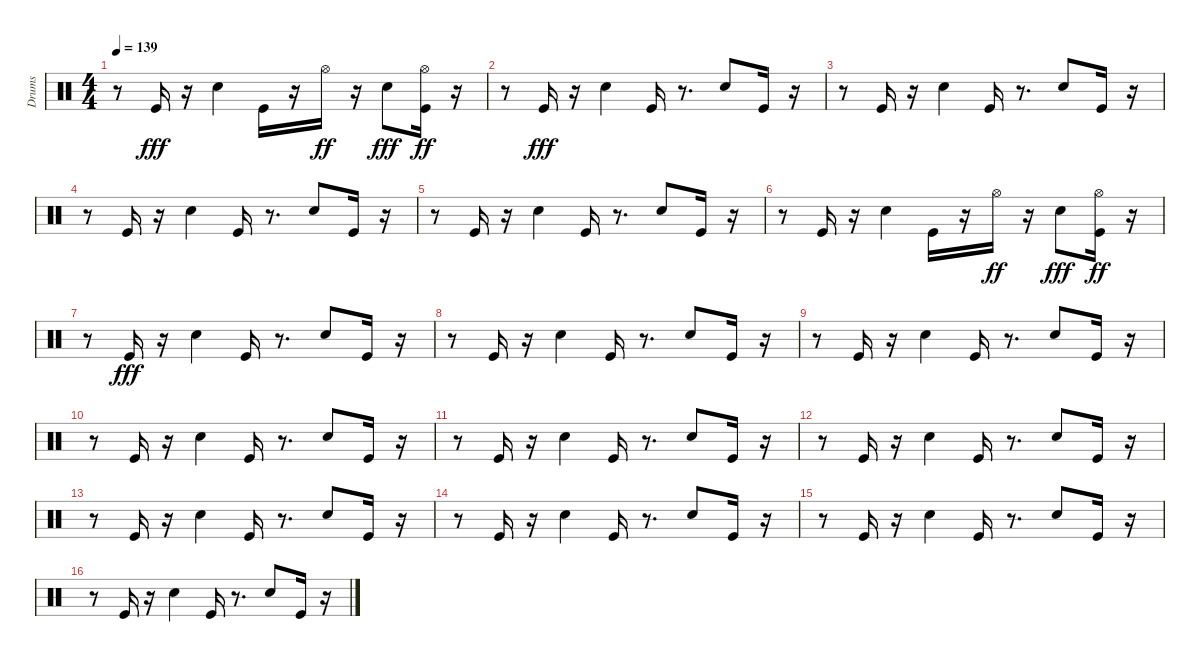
\track ("Drums" "Drums") {instrument percussion}
\staff {score}
\articulation defaults
\ts (4 4)
\tempo 139
\clef neutral
\ks c
r.8{dy fff} "Kick (hit)".16 r.16 "Snare (hit) 2".4 "Kick (hit)".16 r.16 "Hi-Hat (open)".16{dy ff} r.16 "Snare (hit) 2".8{dy fff} ("Kick (hit)" "Hi-Hat (open)").16{dy ff} r.16 |
r.8 "Kick (hit)".16{dy fff} r.16 "Snare (hit) 2".4 "Kick (hit)".16 r.8{d} "Snare (hit) 2".8 "Kick (hit)".16 r.16 |
r.8 "Kick (hit)".16 r.16 "Snare (hit) 2".4 "Kick (hit)".16 r.8{d} "Snare (hit) 2".8 "Kick (hit)".16 r.16 |
r.8 "Kick (hit)".16 r.16 "Snare (hit) 2".4 "Kick (hit)".16 r.8{d} "Snare (hit) 2".8 "Kick (hit)".16 r.16 |
r.8 "Kick (hit)".16 r.16 "Snare (hit) 2".4 "Kick (hit)".16 r.8{d} "Snare (hit) 2".8 "Kick (hit)".16 r.16 |
r.8 "Kick (hit)".16 r.16 "Snare (hit) 2".4 "Kick (hit)".16 r.16 "Hi-Hat (open)".16{dy ff} r.16 "Snare (hit) 2".8{dy fff} ("Kick (hit)" "Hi-Hat (open)").16{dy ff} r.16 |
r.8 "Kick (hit)".16{dy fff} r.16 "Snare (hit) 2".4 "Kick (hit)".16 r.8{d} "Snare (hit) 2".8 "Kick (hit)".16 r.16 |
r.8 "Kick (hit)".16 r.16 "Snare (hit) 2".4 "Kick (hit)".16 r.8{d} "Snare (hit) 2".8 "Kick (hit)".16 r.16 |
r.8 "Kick (hit)".16 r.16 "Snare (hit) 2".4 "Kick (hit)".16 r.8{d} "Snare (hit) 2".8 "Kick (hit)".16 r.16 |
r.8 "Kick (hit)".16 r.16 "Snare (hit) 2".4 "Kick (hit)".16 r.8{d} "Snare (hit) 2".8 "Kick (hit)".16 r.16 |
r.8 "Kick (hit)".16 r.16 "Snare (hit) 2".4 "Kick (hit)".16 r.8{d} "Snare (hit) 2".8 "Kick (hit)".16 r.16 |
r.8 "Kick (hit)".16 r.16 "Snare (hit) 2".4 "Kick (hit)".16 r.8{d} "Snare (hit) 2".8 "Kick (hit)".16 r.16 |
r.8 "Kick (hit)".16 r.16 "Snare (hit) 2".4 "Kick (hit)".16 r.8{d} "Snare (hit) 2".8 "Kick (hit)".16 r.16 |
r.8 "Kick (hit)".16 r.16 "Snare (hit) 2".4 "Kick (hit)".16 r.8{d} "Snare (hit) 2".8 "Kick (hit)".16 r.16 |
r.8 "Kick (hit)".16 r.16 "Snare (hit) 2".4 "Kick (hit)".16 r.8{d} "Snare (hit) 2".8 "Kick (hit)".16 r.16 |
r.8 "Kick (hit)".16 r.16 "Snare (hit) 2".4 "Kick (hit)".16 r.8{d} "Snare (hit) 2".8 "Kick (hit)".16 r.16
